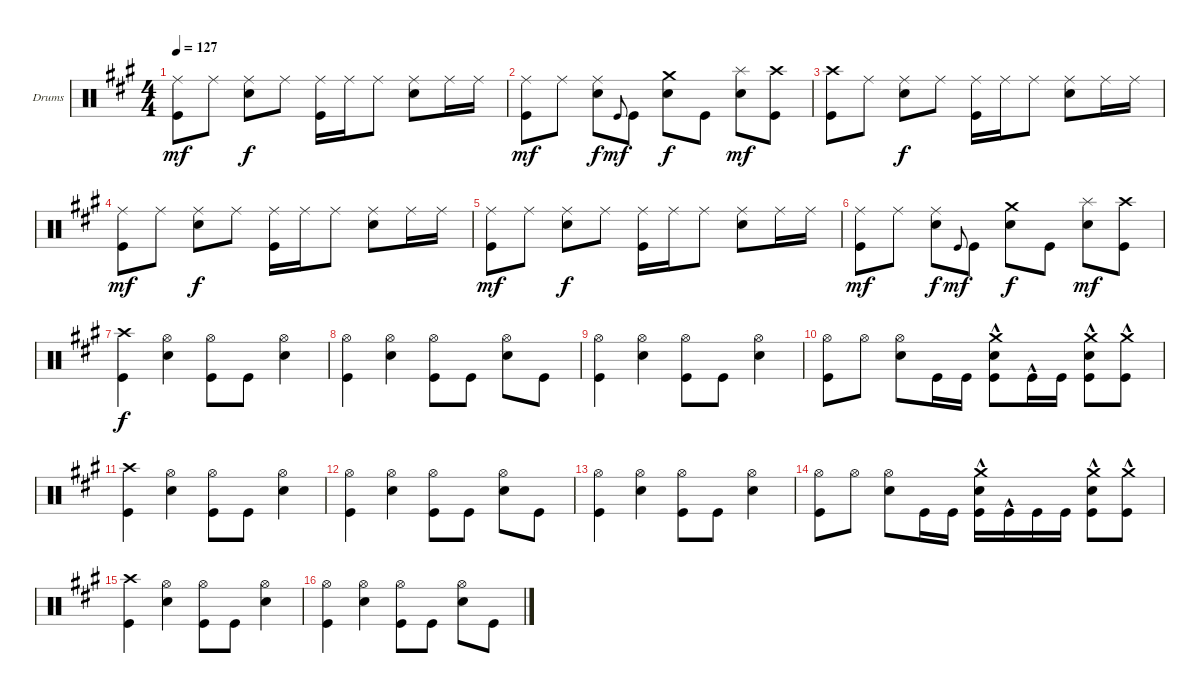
\bracketExtendMode groupsimilarinstruments
\firstSystemTrackNameOrientation horizontal
\otherSystemsTrackNameOrientation horizontal
\track ("Drumkit" "Drums") {instrument percussion}
\staff {score}
\articulation defaults
\ts (4 4)
\tempo 127
\clef neutral
\ks f#minor
("Kick (hit)" "Ride (middle)").8{dy mf} "Ride (middle)".8 ("Snare (hit) 2" "Ride (middle)").8{dy f} "Ride (middle)".8 ("Ride (middle)" "Kick (hit)").16 "Ride (middle)".16 "Ride (middle)".8 ("Ride (middle)" "Snare (hit) 2").8 "Ride (middle)".16 "Ride (middle)".16 |
("Kick (hit)" "Ride (middle)").8{dy mf} "Ride (middle)".8 ("Snare (hit) 2" "Ride (middle)").8{dy f} "Kick (hit)".8{gr onbeat dy mf} "Kick (hit)".8 ("Snare (hit) 2" "Crash medium (hit)").8{dy f} "Kick (hit)".8 ("Snare (hit) 2" "Splash (hit)").8{dy mf} ("Kick (hit)" "Crash high (hit)").8 |
("Kick (hit)" "Crash high (hit)").8 "Ride (middle)".8 ("Snare (hit) 2" "Ride (middle)").8{dy f} "Ride (middle)".8 ("Ride (middle)" "Kick (hit)").16 "Ride (middle)".16 "Ride (middle)".8 ("Ride (middle)" "Snare (hit) 2").8 "Ride (middle)".16 "Ride (middle)".16 |
("Kick (hit)" "Ride (middle)").8{dy mf} "Ride (middle)".8 ("Snare (hit) 2" "Ride (middle)").8{dy f} "Ride (middle)".8 ("Ride (middle)" "Kick (hit)").16 "Ride (middle)".16 "Ride (middle)".8 ("Ride (middle)" "Snare (hit) 2").8 "Ride (middle)".16 "Ride (middle)".16 |
("Kick (hit)" "Ride (middle)").8{dy mf} "Ride (middle)".8 ("Snare (hit) 2" "Ride (middle)").8{dy f} "Ride (middle)".8 ("Ride (middle)" "Kick (hit)").16 "Ride (middle)".16 "Ride (middle)".8 ("Ride (middle)" "Snare (hit) 2").8 "Ride (middle)".16 "Ride (middle)".16 |
("Kick (hit)" "Ride (middle)").8{dy mf} "Ride (middle)".8 ("Snare (hit) 2" "Ride (middle)").8{dy f} "Kick (hit)".8{gr onbeat dy mf} "Kick (hit)".8 ("Snare (hit) 2" "Crash medium (hit)").8{dy f} "Kick (hit)".8 ("Snare (hit) 2" "Splash (hit)").8{dy mf} ("Kick (hit)" "Crash high (hit)").8 |
("Kick (hit)" "Crash high (hit)").4{dy f} ("Hi-Hat (open)" "Snare (hit) 2").4 ("Hi-Hat (open)" "Kick (hit)").8 "Kick (hit)".8 ("Hi-Hat (open)" "Snare (hit) 2").4 |
("Hi-Hat (open)" "Kick (hit)").4 ("Hi-Hat (open)" "Snare (hit) 2").4 ("Hi-Hat (open)" "Kick (hit)").8 "Kick (hit)".8 ("Hi-Hat (open)" "Snare (hit) 2").8 "Kick (hit)".8 |
("Hi-Hat (open)" "Kick (hit)").4 ("Hi-Hat (open)" "Snare (hit) 2").4 ("Hi-Hat (open)" "Kick (hit)").8 "Kick (hit)".8 ("Hi-Hat (open)" "Snare (hit) 2").4 |
("Hi-Hat (open)" "Kick (hit)").8 "Hi-Hat (open)".8 ("Hi-Hat (open)" "Snare (hit) 2").8 "Kick (hit)".16 "Kick (hit)".16 ("Snare (hit) 2" "Kick (hit)"{hac} "Crash medium (hit)").8 "Kick (hit)"{hac}.16 "Kick (hit)".16 ("Snare (hit) 2" "Kick (hit)"{hac} "Crash medium (hit)").8 ("Kick (hit)"{hac} "Crash medium (hit)").8 |
("Kick (hit)" "Crash high (hit)").4 ("Hi-Hat (open)" "Snare (hit) 2").4 ("Hi-Hat (open)" "Kick (hit)").8 "Kick (hit)".8 ("Hi-Hat (open)" "Snare (hit) 2").4 |
("Hi-Hat (open)" "Kick (hit)").4 ("Hi-Hat (open)" "Snare (hit) 2").4 ("Hi-Hat (open)" "Kick (hit)").8 "Kick (hit)".8 ("Hi-Hat (open)" "Snare (hit) 2").8 "Kick (hit)".8 |
("Hi-Hat (open)" "Kick (hit)").4 ("Hi-Hat (open)" "Snare (hit) 2").4 ("Hi-Hat (open)" "Kick (hit)").8 "Kick (hit)".8 ("Hi-Hat (open)" "Snare (hit) 2").4 |
("Hi-Hat (open)" "Kick (hit)").8 "Hi-Hat (open)".8 ("Hi-Hat (open)" "Snare (hit) 2").8 "Kick (hit)".16 "Kick (hit)".16 ("Snare (hit) 2" "Kick (hit)"{hac} "Crash medium (hit)").16 "Kick (hit)"{hac}.16 "Kick (hit)".16 "Kick (hit)".16 ("Snare (hit) 2" "Kick (hit)"{hac} "Crash medium (hit)").8 ("Kick (hit)"{hac} "Crash medium (hit)").8 |
("Kick (hit)" "Crash high (hit)").4 ("Hi-Hat (open)" "Snare (hit) 2").4 ("Hi-Hat (open)" "Kick (hit)").8 "Kick (hit)".8 ("Hi-Hat (open)" "Snare (hit) 2").4 |
("Hi-Hat (open)" "Kick (hit)").4 ("Hi-Hat (open)" "Snare (hit) 2").4 ("Hi-Hat (open)" "Kick (hit)").8 "Kick (hit)".8 ("Hi-Hat (open)" "Snare (hit) 2").8 "Kick (hit)".8
